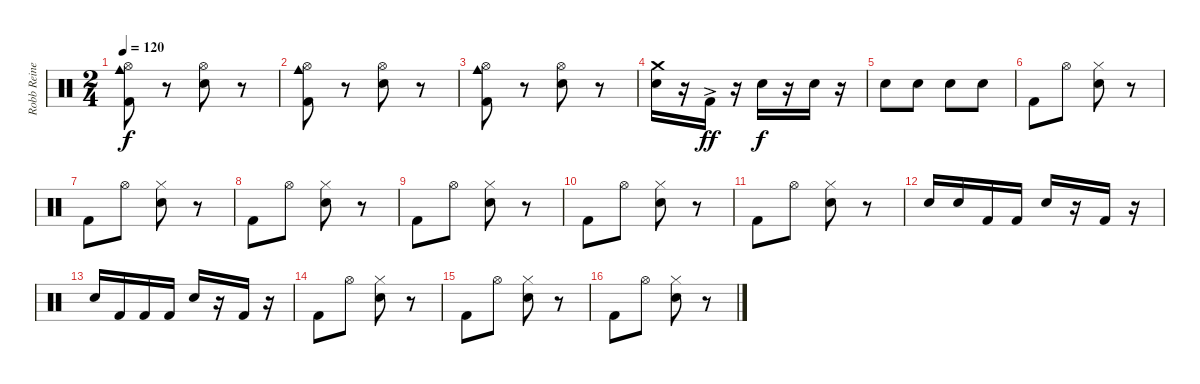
\track ("Robb Reiner" "Robb Reine") {instrument percussion}
\staff {score}
\articulation defaults
\ts (2 4)
\tempo 120
\clef neutral
\ks c
("Cowbell medium (hit)" "Hi-Hat (open)" "Kick (hit) 2").8{dy f} r.8 ("Hi-Hat (open)" "Snare (hit) 2").8 r.8 |
("Cowbell medium (hit)" "Hi-Hat (open)" "Kick (hit) 2").8 r.8 ("Hi-Hat (open)" "Snare (hit) 2").8 r.8 |
("Cowbell medium (hit)" "Hi-Hat (open)" "Kick (hit) 2").8 r.8 ("Hi-Hat (open)" "Snare (hit) 2").8 r.8 |
("Crash medium (hit)" "Snare (hit) 2").16 r.16 "Kick (hit) 2"{ac}.16{dy ff} r.16 "Snare (hit) 2".16{dy f} r.16 "Snare (hit) 2".16 r.16 |
"Snare (hit) 2".8 "Snare (hit) 2".8 "Snare (hit) 2".8 "Snare (hit) 2".8 |
"Kick (hit) 2".8 "Hi-Hat (open)".8 ("Hi-Hat (closed)" "Snare (hit) 2").8 r.8 |
"Kick (hit) 2".8 "Hi-Hat (open)".8 ("Hi-Hat (closed)" "Snare (hit) 2").8 r.8 |
"Kick (hit) 2".8 "Hi-Hat (open)".8 ("Hi-Hat (closed)" "Snare (hit) 2").8 r.8 |
"Kick (hit) 2".8 "Hi-Hat (open)".8 ("Hi-Hat (closed)" "Snare (hit) 2").8 r.8 |
"Kick (hit) 2".8 "Hi-Hat (open)".8 ("Hi-Hat (closed)" "Snare (hit) 2").8 r.8 |
"Kick (hit) 2".8 "Hi-Hat (open)".8 ("Hi-Hat (closed)" "Snare (hit) 2").8 r.8 |
"Snare (hit) 2".16 "Snare (hit) 2".16 "Kick (hit) 2".16 "Kick (hit) 2".16 "Snare (hit) 2".16 r.16 "Kick (hit) 2".16 r.16 |
"Snare (hit) 2".16 "Kick (hit) 2".16 "Kick (hit) 2".16 "Kick (hit) 2".16 "Snare (hit) 2".16 r.16 "Kick (hit) 2".16 r.16 |
"Kick (hit) 2".8 "Hi-Hat (open)".8 ("Hi-Hat (closed)" "Snare (hit) 2").8 r.8 |
"Kick (hit) 2".8 "Hi-Hat (open)".8 ("Hi-Hat (closed)" "Snare (hit) 2").8 r.8 |
"Kick (hit) 2".8 "Hi-Hat (open)".8 ("Hi-Hat (closed)" "Snare (hit) 2").8 r.8
